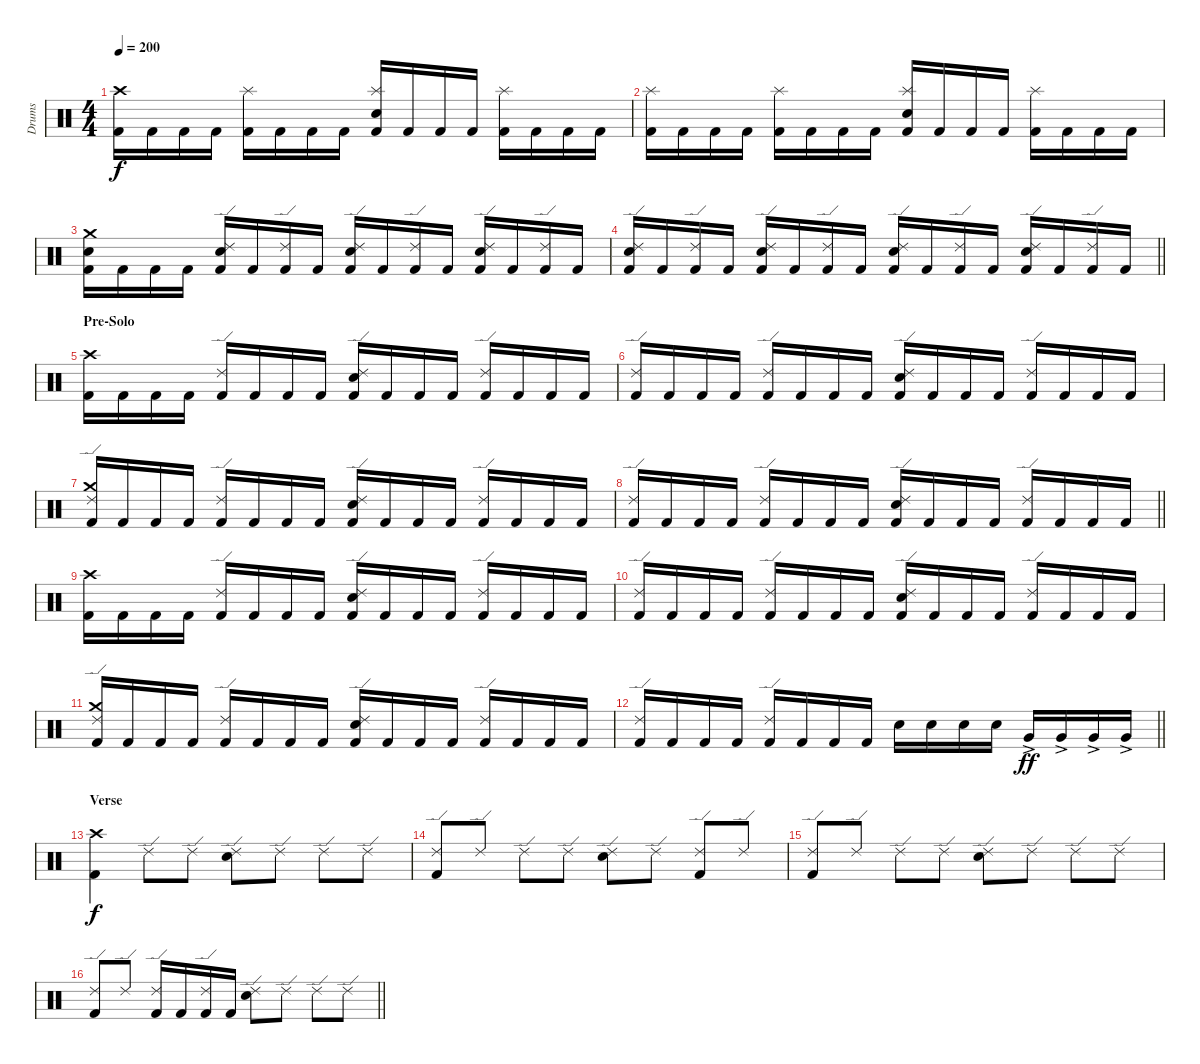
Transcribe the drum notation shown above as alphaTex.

\track ("Drums" "Drums") {instrument percussion}
\staff {score}
\articulation defaults
\ts (4 4)
\section ("" "")
\tempo 200
\clef neutral
\ks c
("Kick (hit) 2" "Crash high (hit)").16{dy f} "Kick (hit) 2".16 "Kick (hit) 2".16 "Kick (hit) 2".16 ("Kick (hit) 2" "Splash (hit)").16 "Kick (hit) 2".16 "Kick (hit) 2".16 "Kick (hit) 2".16 ("Kick (hit) 2" "Snare (hit) 2" "Splash (hit)").16 "Kick (hit) 2".16 "Kick (hit) 2".16 "Kick (hit) 2".16 ("Kick (hit) 2" "Splash (hit)").16 "Kick (hit) 2".16 "Kick (hit) 2".16 "Kick (hit) 2".16 |
("Kick (hit) 2" "Splash (hit)").16 "Kick (hit) 2".16 "Kick (hit) 2".16 "Kick (hit) 2".16 ("Kick (hit) 2" "Splash (hit)").16 "Kick (hit) 2".16 "Kick (hit) 2".16 "Kick (hit) 2".16 ("Kick (hit) 2" "Snare (hit) 2" "Splash (hit)").16 "Kick (hit) 2".16 "Kick (hit) 2".16 "Kick (hit) 2".16 ("Kick (hit) 2" "Splash (hit)").16 "Kick (hit) 2".16 "Kick (hit) 2".16 "Kick (hit) 2".16 |
("Kick (hit) 2" "Snare (hit) 2" "Crash medium (hit)").16 "Kick (hit) 2".16 "Kick (hit) 2".16 "Kick (hit) 2".16 ("Kick (hit) 2" "Snare (hit) 2" "Ride (edge) 2").16 "Kick (hit) 2".16 ("Kick (hit) 2" "Ride (edge) 2").16 "Kick (hit) 2".16 ("Kick (hit) 2" "Snare (hit) 2" "Ride (edge) 2").16 "Kick (hit) 2".16 ("Kick (hit) 2" "Ride (edge) 2").16 "Kick (hit) 2".16 ("Kick (hit) 2" "Snare (hit) 2" "Ride (edge) 2").16 "Kick (hit) 2".16 ("Kick (hit) 2" "Ride (edge) 2").16 "Kick (hit) 2".16 |
\barLineRight lightlight
("Kick (hit) 2" "Snare (hit) 2" "Ride (edge) 2").16 "Kick (hit) 2".16 ("Kick (hit) 2" "Ride (edge) 2").16 "Kick (hit) 2".16 ("Kick (hit) 2" "Snare (hit) 2" "Ride (edge) 2").16 "Kick (hit) 2".16 ("Kick (hit) 2" "Ride (edge) 2").16 "Kick (hit) 2".16 ("Kick (hit) 2" "Snare (hit) 2" "Ride (edge) 2").16 "Kick (hit) 2".16 ("Kick (hit) 2" "Ride (edge) 2").16 "Kick (hit) 2".16 ("Kick (hit) 2" "Snare (hit) 2" "Ride (edge) 2").16 "Kick (hit) 2".16 ("Kick (hit) 2" "Ride (edge) 2").16 "Kick (hit) 2".16 |
\section ("" "Pre-Solo")
("Kick (hit) 2" "Crash high (hit)").16 "Kick (hit) 2".16 "Kick (hit) 2".16 "Kick (hit) 2".16 ("Kick (hit) 2" "Ride (edge) 2").16 "Kick (hit) 2".16 "Kick (hit) 2".16 "Kick (hit) 2".16 ("Kick (hit) 2" "Snare (hit) 2" "Ride (edge) 2").16 "Kick (hit) 2".16 "Kick (hit) 2".16 "Kick (hit) 2".16 ("Kick (hit) 2" "Ride (edge) 2").16 "Kick (hit) 2".16 "Kick (hit) 2".16 "Kick (hit) 2".16 |
("Kick (hit) 2" "Ride (edge) 2").16 "Kick (hit) 2".16 "Kick (hit) 2".16 "Kick (hit) 2".16 ("Kick (hit) 2" "Ride (edge) 2").16 "Kick (hit) 2".16 "Kick (hit) 2".16 "Kick (hit) 2".16 ("Kick (hit) 2" "Snare (hit) 2" "Ride (edge) 2").16 "Kick (hit) 2".16 "Kick (hit) 2".16 "Kick (hit) 2".16 ("Kick (hit) 2" "Ride (edge) 2").16 "Kick (hit) 2".16 "Kick (hit) 2".16 "Kick (hit) 2".16 |
("Kick (hit) 2" "Ride (edge) 2" "Crash medium (hit)").16 "Kick (hit) 2".16 "Kick (hit) 2".16 "Kick (hit) 2".16 ("Kick (hit) 2" "Ride (edge) 2").16 "Kick (hit) 2".16 "Kick (hit) 2".16 "Kick (hit) 2".16 ("Kick (hit) 2" "Snare (hit) 2" "Ride (edge) 2").16 "Kick (hit) 2".16 "Kick (hit) 2".16 "Kick (hit) 2".16 ("Kick (hit) 2" "Ride (edge) 2").16 "Kick (hit) 2".16 "Kick (hit) 2".16 "Kick (hit) 2".16 |
\barLineRight lightlight
("Kick (hit) 2" "Ride (edge) 2").16 "Kick (hit) 2".16 "Kick (hit) 2".16 "Kick (hit) 2".16 ("Kick (hit) 2" "Ride (edge) 2").16 "Kick (hit) 2".16 "Kick (hit) 2".16 "Kick (hit) 2".16 ("Kick (hit) 2" "Snare (hit) 2" "Ride (edge) 2").16 "Kick (hit) 2".16 "Kick (hit) 2".16 "Kick (hit) 2".16 ("Kick (hit) 2" "Ride (edge) 2").16 "Kick (hit) 2".16 "Kick (hit) 2".16 "Kick (hit) 2".16 |
\section ("" "")
("Kick (hit) 2" "Crash high (hit)").16 "Kick (hit) 2".16 "Kick (hit) 2".16 "Kick (hit) 2".16 ("Kick (hit) 2" "Ride (edge) 2").16 "Kick (hit) 2".16 "Kick (hit) 2".16 "Kick (hit) 2".16 ("Kick (hit) 2" "Snare (hit) 2" "Ride (edge) 2").16 "Kick (hit) 2".16 "Kick (hit) 2".16 "Kick (hit) 2".16 ("Kick (hit) 2" "Ride (edge) 2").16 "Kick (hit) 2".16 "Kick (hit) 2".16 "Kick (hit) 2".16 |
("Kick (hit) 2" "Ride (edge) 2").16 "Kick (hit) 2".16 "Kick (hit) 2".16 "Kick (hit) 2".16 ("Kick (hit) 2" "Ride (edge) 2").16 "Kick (hit) 2".16 "Kick (hit) 2".16 "Kick (hit) 2".16 ("Kick (hit) 2" "Snare (hit) 2" "Ride (edge) 2").16 "Kick (hit) 2".16 "Kick (hit) 2".16 "Kick (hit) 2".16 ("Kick (hit) 2" "Ride (edge) 2").16 "Kick (hit) 2".16 "Kick (hit) 2".16 "Kick (hit) 2".16 |
("Kick (hit) 2" "Ride (edge) 2" "Crash medium (hit)").16 "Kick (hit) 2".16 "Kick (hit) 2".16 "Kick (hit) 2".16 ("Kick (hit) 2" "Ride (edge) 2").16 "Kick (hit) 2".16 "Kick (hit) 2".16 "Kick (hit) 2".16 ("Kick (hit) 2" "Snare (hit) 2" "Ride (edge) 2").16 "Kick (hit) 2".16 "Kick (hit) 2".16 "Kick (hit) 2".16 ("Kick (hit) 2" "Ride (edge) 2").16 "Kick (hit) 2".16 "Kick (hit) 2".16 "Kick (hit) 2".16 |
\barLineRight lightlight
("Kick (hit) 2" "Ride (edge) 2").16 "Kick (hit) 2".16 "Kick (hit) 2".16 "Kick (hit) 2".16 ("Kick (hit) 2" "Ride (edge) 2").16 "Kick (hit) 2".16 "Kick (hit) 2".16 "Kick (hit) 2".16 "Snare (hit) 2".16 "Snare (hit) 2".16 "Snare (hit) 2".16 "Snare (hit) 2".16 "Very Low Tom (hit)"{ac}.16{dy ff} "Very Low Tom (hit)"{ac}.16 "Very Low Tom (hit)"{ac}.16 "Very Low Tom (hit)"{ac}.16 |
\section ("" "Verse")
("Kick (hit) 2" "Crash high (hit)").4{dy f} "Ride (edge) 2".8 "Ride (edge) 2".8 ("Snare (hit) 2" "Ride (edge) 2").8 "Ride (edge) 2".8 "Ride (edge) 2".8 "Ride (edge) 2".8 |
("Kick (hit) 2" "Ride (edge) 2").8 "Ride (edge) 2".8 "Ride (edge) 2".8 "Ride (edge) 2".8 ("Snare (hit) 2" "Ride (edge) 2").8 "Ride (edge) 2".8 ("Kick (hit) 2" "Ride (edge) 2").8 "Ride (edge) 2".8 |
("Kick (hit) 2" "Ride (edge) 2").8 "Ride (edge) 2".8 "Ride (edge) 2".8 "Ride (edge) 2".8 ("Snare (hit) 2" "Ride (edge) 2").8 "Ride (edge) 2".8 "Ride (edge) 2".8 "Ride (edge) 2".8 |
\barLineRight lightlight
("Kick (hit) 2" "Ride (edge) 2").8 "Ride (edge) 2".8 ("Kick (hit) 2" "Ride (edge) 2").16 "Kick (hit) 2".16 ("Kick (hit) 2" "Ride (edge) 2").16 "Kick (hit) 2".16 ("Snare (hit) 2" "Ride (edge) 2").8 "Ride (edge) 2".8 "Ride (edge) 2".8 "Ride (edge) 2".8
